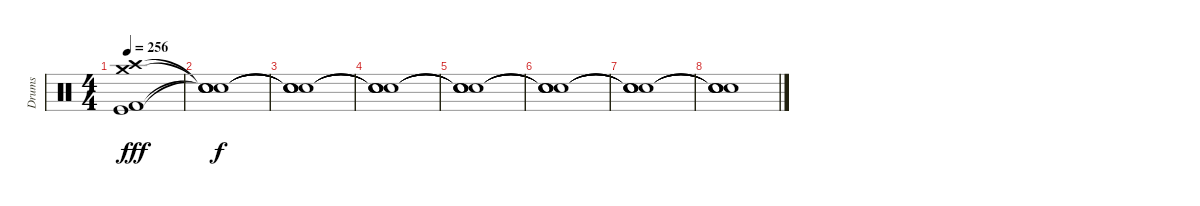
\track ("Drums" "Drums") {instrument percussion}
\staff {score}
\articulation defaults
\ts (4 4)
\tempo 256
\clef neutral
\ks c
("Crash high (hit)" "Crash medium (hit)" "Kick (hit)" "Kick (hit) 2").1{dy fff} |
("Snare (hit)"{t} "Snare (hit)"{t} "Snare (hit)"{t} "Snare (hit)"{t}).1{dy f} |
("Snare (hit)"{t} "Snare (hit)"{t} "Snare (hit)"{t} "Snare (hit)"{t}).1 |
("Snare (hit)"{t} "Snare (hit)"{t} "Snare (hit)"{t} "Snare (hit)"{t}).1 |
("Snare (hit)"{t} "Snare (hit)"{t} "Snare (hit)"{t} "Snare (hit)"{t}).1 |
("Snare (hit)"{t} "Snare (hit)"{t} "Snare (hit)"{t} "Snare (hit)"{t}).1 |
("Snare (hit)"{t} "Snare (hit)"{t} "Snare (hit)"{t} "Snare (hit)"{t}).1 |
("Snare (hit)"{t} "Snare (hit)"{t} "Snare (hit)"{t} "Snare (hit)"{t}).1
